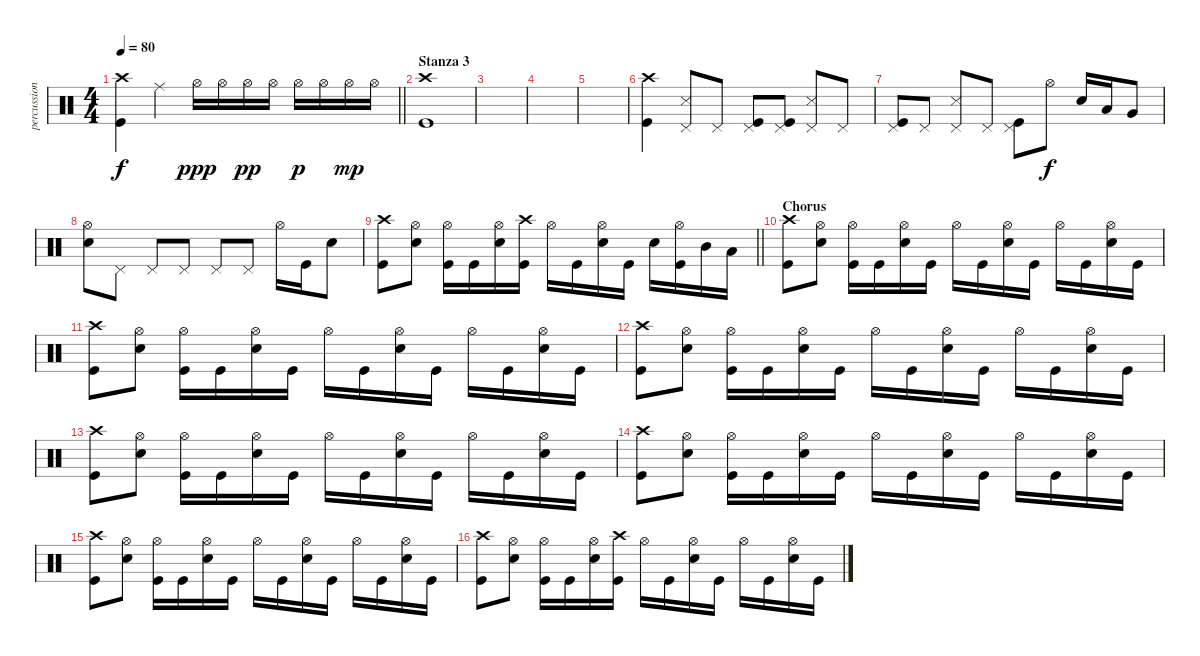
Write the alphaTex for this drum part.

\track ("percussion" "percussion") {instrument percussion}
\staff {score}
\articulation defaults
\ts (4 4)
\tempo 80
\clef neutral
\barLineRight lightlight
\ks c
("Crash high (hit)" "Kick (hit)").4{dy f} "Ride (middle)".4 "Hi-Hat (open)".16{dy ppp} "Hi-Hat (open)".16 "Hi-Hat (open)".16{dy pp} "Hi-Hat (open)".16 "Hi-Hat (open)".16{dy p} "Hi-Hat (open)".16 "Hi-Hat (open)".16{dy mp} "Hi-Hat (open)".16 |
\section ("" "Stanza 3")
("Crash high (hit)" "Kick (hit)").1 |
|
|
|
("Crash high (hit)" "Kick (hit)").4 ("Pedal Hi-Hat (hit)" "Snare (side stick) 3").8 "Pedal Hi-Hat (hit)".8 ("Pedal Hi-Hat (hit)" "Kick (hit)").8 ("Pedal Hi-Hat (hit)" "Kick (hit)").8 ("Pedal Hi-Hat (hit)" "Snare (side stick) 3").8 "Pedal Hi-Hat (hit)".8 |
("Pedal Hi-Hat (hit)" "Kick (hit)").8 "Pedal Hi-Hat (hit)".8 ("Pedal Hi-Hat (hit)" "Snare (side stick) 3").8 "Pedal Hi-Hat (hit)".8 ("Pedal Hi-Hat (hit)" "Kick (hit)").8 "Hi-Hat (open)".8{dy f} "Snare (hit) 2".16 "Low Tom (hit)".16 "Very Low Tom (hit)".8 |
("Hi-Hat (open)" "Snare (hit) 2").8 "Pedal Hi-Hat (hit)".8 "Pedal Hi-Hat (hit)".8 "Pedal Hi-Hat (hit)".8 "Pedal Hi-Hat (hit)".8 "Pedal Hi-Hat (hit)".8 "Hi-Hat (open)".16 "Kick (hit)".16 "Snare (hit) 2".8 |
\barLineRight lightlight
("Crash high (hit)" "Kick (hit)").8 ("Hi-Hat (open)" "Snare (hit) 2").8 ("Hi-Hat (open)" "Kick (hit)").16 "Kick (hit)".16 ("Hi-Hat (open)" "Snare (hit) 2").16 ("Crash high (hit)" "Kick (hit)").16 "Hi-Hat (open)".16 "Kick (hit)".16 ("Hi-Hat (open)" "Snare (hit) 2").16 "Kick (hit)".16 "Snare (hit) 2".16 ("Hi-Hat (open)" "Kick (hit)").16 "Mid Tom (hit)".16 "Low Tom (hit)".16 |
\section ("" "Chorus")
("Crash high (hit)" "Kick (hit)").8 ("Hi-Hat (open)" "Snare (hit) 2").8 ("Hi-Hat (open)" "Kick (hit)").16 "Kick (hit)".16 ("Hi-Hat (open)" "Snare (hit) 2").16 "Kick (hit)".16 "Hi-Hat (open)".16 "Kick (hit)".16 ("Hi-Hat (open)" "Snare (hit) 2").16 "Kick (hit)".16 "Hi-Hat (open)".16 "Kick (hit)".16 ("Hi-Hat (open)" "Snare (hit) 2").16 "Kick (hit)".16 |
("Crash high (hit)" "Kick (hit)").8 ("Hi-Hat (open)" "Snare (hit) 2").8 ("Hi-Hat (open)" "Kick (hit)").16 "Kick (hit)".16 ("Hi-Hat (open)" "Snare (hit) 2").16 "Kick (hit)".16 "Hi-Hat (open)".16 "Kick (hit)".16 ("Hi-Hat (open)" "Snare (hit) 2").16 "Kick (hit)".16 "Hi-Hat (open)".16 "Kick (hit)".16 ("Hi-Hat (open)" "Snare (hit) 2").16 "Kick (hit)".16 |
("Crash high (hit)" "Kick (hit)").8 ("Hi-Hat (open)" "Snare (hit) 2").8 ("Hi-Hat (open)" "Kick (hit)").16 "Kick (hit)".16 ("Hi-Hat (open)" "Snare (hit) 2").16 "Kick (hit)".16 "Hi-Hat (open)".16 "Kick (hit)".16 ("Hi-Hat (open)" "Snare (hit) 2").16 "Kick (hit)".16 "Hi-Hat (open)".16 "Kick (hit)".16 ("Hi-Hat (open)" "Snare (hit) 2").16 "Kick (hit)".16 |
("Crash high (hit)" "Kick (hit)").8 ("Hi-Hat (open)" "Snare (hit) 2").8 ("Hi-Hat (open)" "Kick (hit)").16 "Kick (hit)".16 ("Hi-Hat (open)" "Snare (hit) 2").16 "Kick (hit)".16 "Hi-Hat (open)".16 "Kick (hit)".16 ("Hi-Hat (open)" "Snare (hit) 2").16 "Kick (hit)".16 "Hi-Hat (open)".16 "Kick (hit)".16 ("Hi-Hat (open)" "Snare (hit) 2").16 "Kick (hit)".16 |
("Crash high (hit)" "Kick (hit)").8 ("Hi-Hat (open)" "Snare (hit) 2").8 ("Hi-Hat (open)" "Kick (hit)").16 "Kick (hit)".16 ("Hi-Hat (open)" "Snare (hit) 2").16 "Kick (hit)".16 "Hi-Hat (open)".16 "Kick (hit)".16 ("Hi-Hat (open)" "Snare (hit) 2").16 "Kick (hit)".16 "Hi-Hat (open)".16 "Kick (hit)".16 ("Hi-Hat (open)" "Snare (hit) 2").16 "Kick (hit)".16 |
("Crash high (hit)" "Kick (hit)").8 ("Hi-Hat (open)" "Snare (hit) 2").8 ("Hi-Hat (open)" "Kick (hit)").16 "Kick (hit)".16 ("Hi-Hat (open)" "Snare (hit) 2").16 "Kick (hit)".16 "Hi-Hat (open)".16 "Kick (hit)".16 ("Hi-Hat (open)" "Snare (hit) 2").16 "Kick (hit)".16 "Hi-Hat (open)".16 "Kick (hit)".16 ("Hi-Hat (open)" "Snare (hit) 2").16 "Kick (hit)".16 |
("Crash high (hit)" "Kick (hit)").8 ("Hi-Hat (open)" "Snare (hit) 2").8 ("Hi-Hat (open)" "Kick (hit)").16 "Kick (hit)".16 ("Hi-Hat (open)" "Snare (hit) 2").16 ("Crash high (hit)" "Kick (hit)").16 "Hi-Hat (open)".16 "Kick (hit)".16 ("Hi-Hat (open)" "Snare (hit) 2").16 "Kick (hit)".16 "Hi-Hat (open)".16 "Kick (hit)".16 ("Hi-Hat (open)" "Snare (hit) 2").16 "Kick (hit)".16
